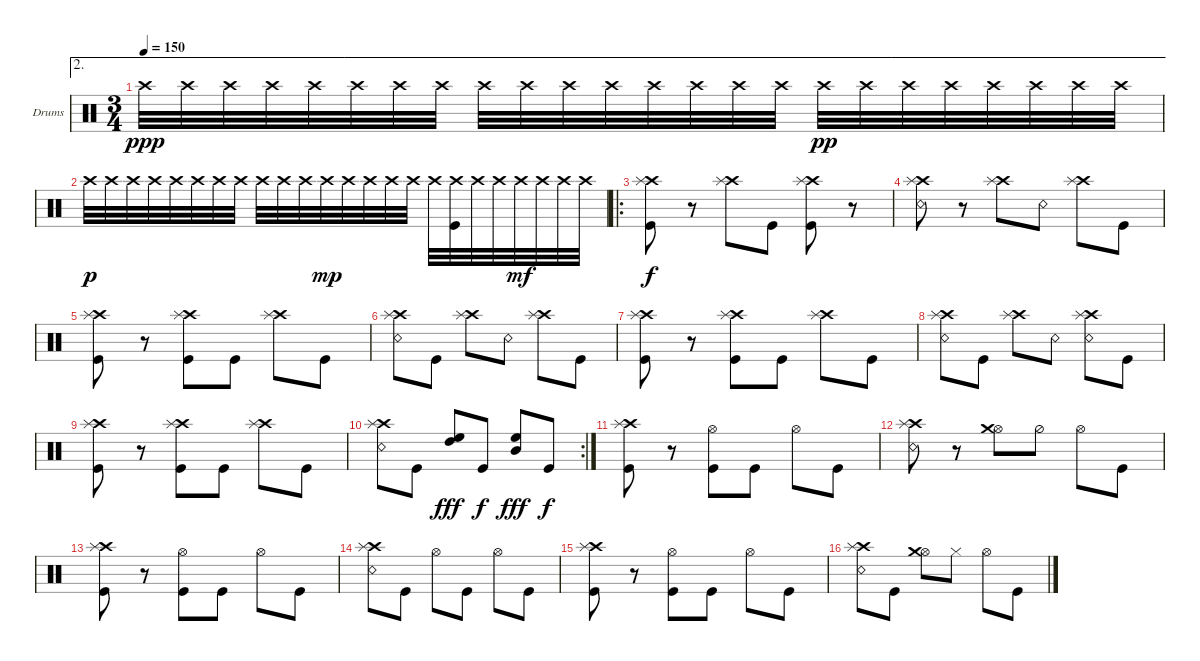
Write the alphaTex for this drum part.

\defaultSystemsLayout 4
\bracketExtendMode groupsimilarinstruments
\firstSystemTrackNameOrientation horizontal
\otherSystemsTrackNameOrientation horizontal
\track ("Scott" "Drums") {mute instrument percussion}
\staff {score}
\articulation defaults
\ae 2
\ts (3 4)
\tempo 150
\clef neutral
\scale
0.322034
\ks c "Crash high (hit)".32{dy ppp} "Crash high (hit)".32 "Crash high (hit)".32 "Crash high (hit)".32 "Crash high (hit)".32 "Crash high (hit)".32 "Crash high (hit)".32 "Crash high (hit)".32 "Crash high (hit)".32 "Crash high (hit)".32 "Crash high (hit)".32 "Crash high (hit)".32 "Crash high (hit)".32 "Crash high (hit)".32 "Crash high (hit)".32 "Crash high (hit)".32 "Crash high (hit)".32{dy pp} "Crash high (hit)".32 "Crash high (hit)".32 "Crash high (hit)".32 "Crash high (hit)".32 "Crash high (hit)".32 "Crash high (hit)".32 "Crash high (hit)".32
|
\scale
0.322034 "Crash high (hit)".32{dy p} "Crash high (hit)".32 "Crash high (hit)".32 "Crash high (hit)".32 "Crash high (hit)".32 "Crash high (hit)".32 "Crash high (hit)".32 "Crash high (hit)".32 "Crash high (hit)".32 "Crash high (hit)".32 "Crash high (hit)".32 "Crash high (hit)".32{dy mp} "Crash high (hit)".32 "Crash high (hit)".32 "Crash high (hit)".32 "Crash high (hit)".32 "Crash high (hit)".32 ("Crash high (hit)" "Kick (hit)").32 "Crash high (hit)".32 "Crash high (hit)".32 "Crash high (hit)".32{dy mf} "Crash high (hit)".32 "Crash high (hit)".32 "Crash high (hit)".32 |
\ro
\scale
0.377049 ("Kick (hit)" "Crash high (hit)" "Splash (hit)").8{dy f} r.8 ("Crash high (hit)" "Splash (hit)").8 "Kick (hit)".8 ("Crash high (hit)" "Splash (hit)" "Kick (hit)").8 r.8 |
\scale
0.311475 ("Snare (rim shot)" "Crash high (hit)" "Splash (hit)").8 r.8 ("Crash high (hit)" "Splash (hit)").8 "Snare (rim shot)".8 ("Crash high (hit)" "Splash (hit)").8 "Kick (hit)".8 |
\scale
0.311475 ("Kick (hit)" "Crash high (hit)" "Splash (hit)").8 r.8 ("Crash high (hit)" "Splash (hit)" "Kick (hit)").8 "Kick (hit)".8 ("Crash high (hit)" "Splash (hit)").8 "Kick (hit)".8 |
\scale
0.333333 ("Snare (rim shot)" "Crash high (hit)" "Splash (hit)").8 "Kick (hit)".8 ("Crash high (hit)" "Splash (hit)").8 "Snare (rim shot)".8 ("Crash high (hit)" "Splash (hit)").8 "Kick (hit)".8 |
\scale
0.333333 ("Kick (hit)" "Crash high (hit)" "Splash (hit)").8 r.8 ("Kick (hit)" "Crash high (hit)" "Splash (hit)").8 "Kick (hit)".8 ("Crash high (hit)" "Splash (hit)").8 "Kick (hit)".8 |
\scale
0.333333 ("Snare (rim shot)" "Crash high (hit)" "Splash (hit)").8 "Kick (hit)".8 ("Crash high (hit)" "Splash (hit)").8 "Snare (rim shot)".8 ("Crash high (hit)" "Splash (hit)" "Snare (rim shot)").8 "Kick (hit)".8 |
\scale
0.322034 ("Kick (hit)" "Crash high (hit)" "Splash (hit)").8 r.8 ("Kick (hit)" "Crash high (hit)" "Splash (hit)").8 "Kick (hit)".8 ("Crash high (hit)" "Splash (hit)").8 "Kick (hit)".8 |
\rc 2
\scale
0.355932 ("Snare (rim shot)" "Crash high (hit)" "Splash (hit)").8 "Kick (hit)".8 ("High Tom (hit)" "High Floor Tom (hit)").8{dy fff} "Kick (hit)".8{dy f} ("High Floor Tom (hit)" "Mid Tom (hit)").8{dy fff} "Kick (hit)".8{dy f} |
\scale
0.322034 ("Kick (hit)" "Crash high (hit)" "Splash (hit)").8 r.8 ("Kick (hit)" "Hi-Hat (open)").8 "Kick (hit)".8 "Hi-Hat (open)".8 "Kick (hit)".8 |
\scale
0.333333 ("Snare (rim shot)" "Crash high (hit)" "Splash (hit)").8 r.8 ("Hi-Hat (open)" "Crash medium (hit)").8 "Hi-Hat (half)".8 "Hi-Hat (open)".8 "Kick (hit)".8 |
\scale
0.333333 ("Kick (hit)" "Crash high (hit)" "Splash (hit)").8 r.8 ("Kick (hit)" "Hi-Hat (open)").8 "Kick (hit)".8 "Hi-Hat (open)".8 "Kick (hit)".8 |
\scale
0.333333 ("Snare (rim shot)" "Crash high (hit)" "Splash (hit)").8 "Kick (hit)".8 "Hi-Hat (open)".8 "Kick (hit)".8 "Hi-Hat (open)".8 "Kick (hit)".8 |
\scale
0.333333 ("Kick (hit)" "Crash high (hit)" "Splash (hit)").8 r.8 ("Kick (hit)" "Hi-Hat (open)").8 "Kick (hit)".8 "Hi-Hat (open)".8 "Kick (hit)".8 |
\scale
0.333333 ("Snare (rim shot)" "Crash high (hit)" "Splash (hit)").8 "Kick (hit)".8 ("Hi-Hat (open)" "Crash medium (hit)").8 "Hi-Hat (closed)".8 "Hi-Hat (open)".8 "Kick (hit)".8
